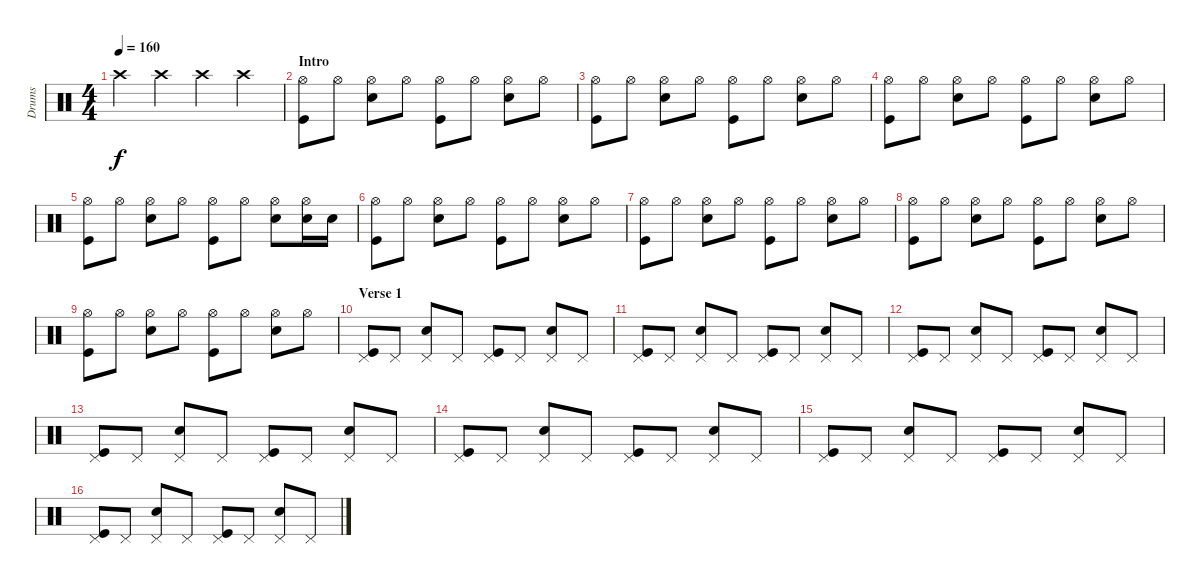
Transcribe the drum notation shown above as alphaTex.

\track ("Drums" "Drums") {instrument percussion}
\staff {score}
\articulation defaults
\ts (4 4)
\tempo 160
\clef neutral
\ks c "Crash high (hit)".4{dy f} "Crash high (hit)".4 "Crash high (hit)".4 "Crash high (hit)".4
|
\section ("" "Intro")
("Hi-Hat (open)" "Kick (hit)").8 "Hi-Hat (open)".8 ("Hi-Hat (open)" "Snare (hit) 2").8 "Hi-Hat (open)".8 ("Hi-Hat (open)" "Kick (hit)").8 "Hi-Hat (open)".8 ("Hi-Hat (open)" "Snare (hit) 2").8 "Hi-Hat (open)".8 |
("Hi-Hat (open)" "Kick (hit)").8 "Hi-Hat (open)".8 ("Hi-Hat (open)" "Snare (hit) 2").8 "Hi-Hat (open)".8 ("Hi-Hat (open)" "Kick (hit)").8 "Hi-Hat (open)".8 ("Hi-Hat (open)" "Snare (hit) 2").8 "Hi-Hat (open)".8 |
("Hi-Hat (open)" "Kick (hit)").8 "Hi-Hat (open)".8 ("Hi-Hat (open)" "Snare (hit) 2").8 "Hi-Hat (open)".8 ("Hi-Hat (open)" "Kick (hit)").8 "Hi-Hat (open)".8 ("Hi-Hat (open)" "Snare (hit) 2").8 "Hi-Hat (open)".8 |
("Hi-Hat (open)" "Kick (hit)").8 "Hi-Hat (open)".8 ("Hi-Hat (open)" "Snare (hit) 2").8 "Hi-Hat (open)".8 ("Hi-Hat (open)" "Kick (hit)").8 "Hi-Hat (open)".8 ("Hi-Hat (open)" "Snare (hit) 2").8 ("Hi-Hat (open)" "Snare (hit) 2").16 "Snare (hit) 2".16 |
("Hi-Hat (open)" "Kick (hit)").8 "Hi-Hat (open)".8 ("Hi-Hat (open)" "Snare (hit) 2").8 "Hi-Hat (open)".8 ("Hi-Hat (open)" "Kick (hit)").8 "Hi-Hat (open)".8 ("Hi-Hat (open)" "Snare (hit) 2").8 "Hi-Hat (open)".8 |
("Hi-Hat (open)" "Kick (hit)").8 "Hi-Hat (open)".8 ("Hi-Hat (open)" "Snare (hit) 2").8 "Hi-Hat (open)".8 ("Hi-Hat (open)" "Kick (hit)").8 "Hi-Hat (open)".8 ("Hi-Hat (open)" "Snare (hit) 2").8 "Hi-Hat (open)".8 |
("Hi-Hat (open)" "Kick (hit)").8 "Hi-Hat (open)".8 ("Hi-Hat (open)" "Snare (hit) 2").8 "Hi-Hat (open)".8 ("Hi-Hat (open)" "Kick (hit)").8 "Hi-Hat (open)".8 ("Hi-Hat (open)" "Snare (hit) 2").8 "Hi-Hat (open)".8 |
("Hi-Hat (open)" "Kick (hit)").8 "Hi-Hat (open)".8 ("Hi-Hat (open)" "Snare (hit) 2").8 "Hi-Hat (open)".8 ("Hi-Hat (open)" "Kick (hit)").8 "Hi-Hat (open)".8 ("Hi-Hat (open)" "Snare (hit) 2").8 "Hi-Hat (open)".8 |
\section ("" "Verse 1")
("Pedal Hi-Hat (hit)" "Kick (hit)").8 "Pedal Hi-Hat (hit)".8 ("Pedal Hi-Hat (hit)" "Snare (hit) 2").8 "Pedal Hi-Hat (hit)".8 ("Pedal Hi-Hat (hit)" "Kick (hit)").8 "Pedal Hi-Hat (hit)".8 ("Pedal Hi-Hat (hit)" "Snare (hit) 2").8 "Pedal Hi-Hat (hit)".8 |
("Pedal Hi-Hat (hit)" "Kick (hit)").8 "Pedal Hi-Hat (hit)".8 ("Pedal Hi-Hat (hit)" "Snare (hit) 2").8 "Pedal Hi-Hat (hit)".8 ("Pedal Hi-Hat (hit)" "Kick (hit)").8 "Pedal Hi-Hat (hit)".8 ("Pedal Hi-Hat (hit)" "Snare (hit) 2").8 "Pedal Hi-Hat (hit)".8 |
("Pedal Hi-Hat (hit)" "Kick (hit)").8 "Pedal Hi-Hat (hit)".8 ("Pedal Hi-Hat (hit)" "Snare (hit) 2").8 "Pedal Hi-Hat (hit)".8 ("Pedal Hi-Hat (hit)" "Kick (hit)").8 "Pedal Hi-Hat (hit)".8 ("Pedal Hi-Hat (hit)" "Snare (hit) 2").8 "Pedal Hi-Hat (hit)".8 |
("Pedal Hi-Hat (hit)" "Kick (hit)").8 "Pedal Hi-Hat (hit)".8 ("Pedal Hi-Hat (hit)" "Snare (hit) 2").8 "Pedal Hi-Hat (hit)".8 ("Pedal Hi-Hat (hit)" "Kick (hit)").8 "Pedal Hi-Hat (hit)".8 ("Pedal Hi-Hat (hit)" "Snare (hit) 2").8 "Pedal Hi-Hat (hit)".8 |
("Pedal Hi-Hat (hit)" "Kick (hit)").8 "Pedal Hi-Hat (hit)".8 ("Pedal Hi-Hat (hit)" "Snare (hit) 2").8 "Pedal Hi-Hat (hit)".8 ("Pedal Hi-Hat (hit)" "Kick (hit)").8 "Pedal Hi-Hat (hit)".8 ("Pedal Hi-Hat (hit)" "Snare (hit) 2").8 "Pedal Hi-Hat (hit)".8 |
("Pedal Hi-Hat (hit)" "Kick (hit)").8 "Pedal Hi-Hat (hit)".8 ("Pedal Hi-Hat (hit)" "Snare (hit) 2").8 "Pedal Hi-Hat (hit)".8 ("Pedal Hi-Hat (hit)" "Kick (hit)").8 "Pedal Hi-Hat (hit)".8 ("Pedal Hi-Hat (hit)" "Snare (hit) 2").8 "Pedal Hi-Hat (hit)".8 |
("Pedal Hi-Hat (hit)" "Kick (hit)").8 "Pedal Hi-Hat (hit)".8 ("Pedal Hi-Hat (hit)" "Snare (hit) 2").8 "Pedal Hi-Hat (hit)".8 ("Pedal Hi-Hat (hit)" "Kick (hit)").8 "Pedal Hi-Hat (hit)".8 ("Pedal Hi-Hat (hit)" "Snare (hit) 2").8 "Pedal Hi-Hat (hit)".8
